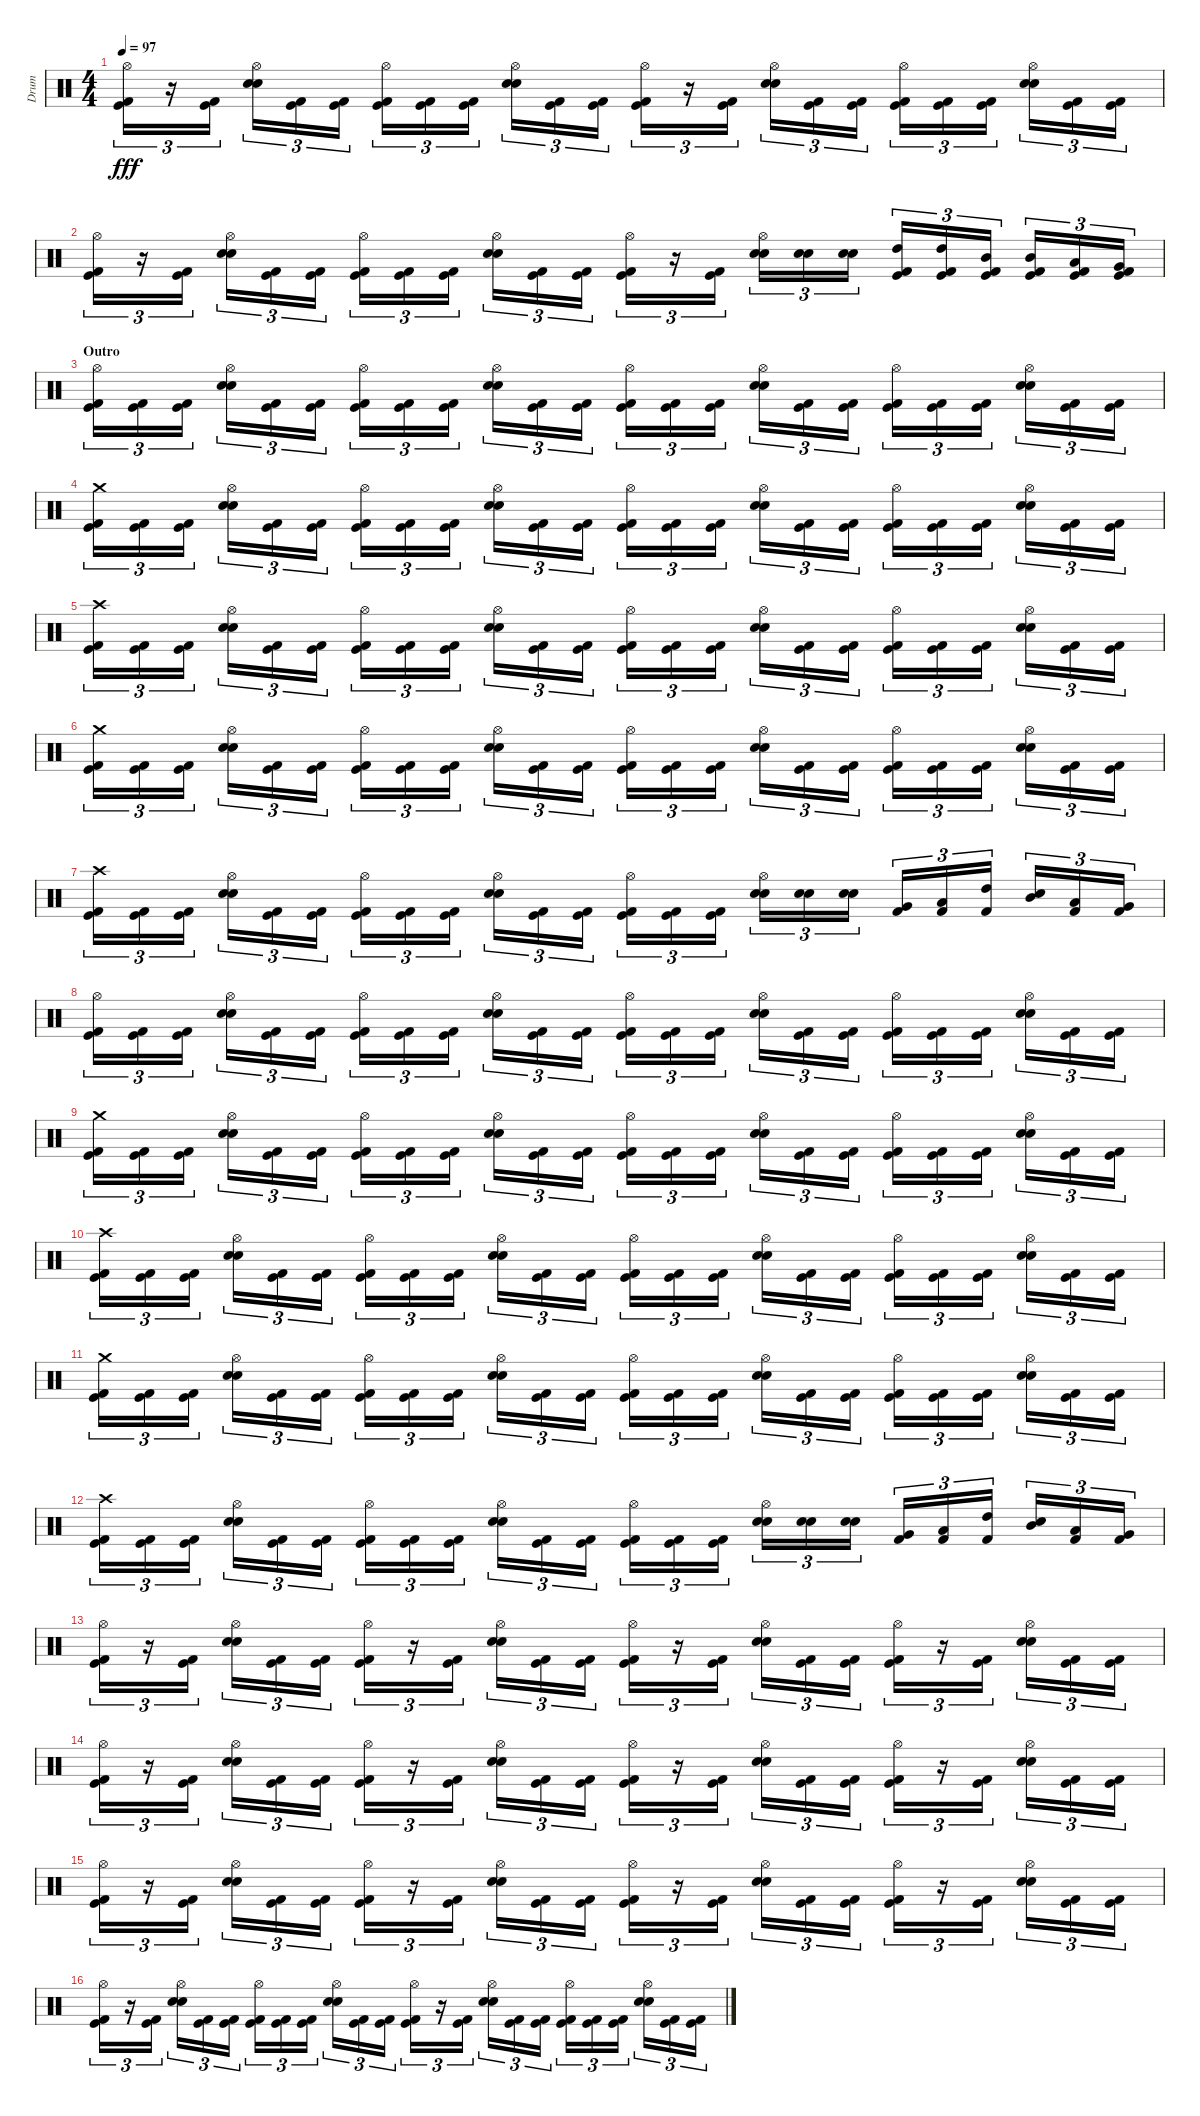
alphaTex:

\track ("Drum" "Drum") {instrument percussion}
\staff {score}
\articulation defaults
\ts (4 4)
\tempo 97
\clef neutral
\ks c
("Hi-Hat (open)" "Kick (hit)" "Kick (hit) 2").16{tu (3 2) dy fff} r.16{tu (3 2)} ("Kick (hit)" "Kick (hit) 2").16{tu (3 2)} ("Hi-Hat (open)" "Electric Snare (hit)" "Snare (hit) 2").16{tu (3 2)} ("Kick (hit)" "Kick (hit) 2").16{tu (3 2)} ("Kick (hit)" "Kick (hit) 2").16{tu (3 2)} ("Hi-Hat (open)" "Kick (hit)" "Kick (hit) 2").16{tu (3 2)} ("Kick (hit)" "Kick (hit) 2").16{tu (3 2)} ("Kick (hit)" "Kick (hit) 2").16{tu (3 2)} ("Hi-Hat (open)" "Electric Snare (hit)" "Snare (hit) 2").16{tu (3 2)} ("Kick (hit)" "Kick (hit) 2").16{tu (3 2)} ("Kick (hit)" "Kick (hit) 2").16{tu (3 2)} ("Hi-Hat (open)" "Kick (hit)" "Kick (hit) 2").16{tu (3 2)} r.16{tu (3 2)} ("Kick (hit)" "Kick (hit) 2").16{tu (3 2)} ("Hi-Hat (open)" "Electric Snare (hit)" "Snare (hit) 2").16{tu (3 2)} ("Kick (hit)" "Kick (hit) 2").16{tu (3 2)} ("Kick (hit)" "Kick (hit) 2").16{tu (3 2)} ("Hi-Hat (open)" "Kick (hit)" "Kick (hit) 2").16{tu (3 2)} ("Kick (hit)" "Kick (hit) 2").16{tu (3 2)} ("Kick (hit)" "Kick (hit) 2").16{tu (3 2)} ("Hi-Hat (open)" "Electric Snare (hit)" "Snare (hit) 2").16{tu (3 2)} ("Kick (hit)" "Kick (hit) 2").16{tu (3 2)} ("Kick (hit)" "Kick (hit) 2").16{tu (3 2)} |
("Hi-Hat (open)" "Kick (hit)" "Kick (hit) 2").16{tu (3 2)} r.16{tu (3 2)} ("Kick (hit)" "Kick (hit) 2").16{tu (3 2)} ("Hi-Hat (open)" "Electric Snare (hit)" "Snare (hit) 2").16{tu (3 2)} ("Kick (hit)" "Kick (hit) 2").16{tu (3 2)} ("Kick (hit)" "Kick (hit) 2").16{tu (3 2)} ("Hi-Hat (open)" "Kick (hit)" "Kick (hit) 2").16{tu (3 2)} ("Kick (hit)" "Kick (hit) 2").16{tu (3 2)} ("Kick (hit)" "Kick (hit) 2").16{tu (3 2)} ("Hi-Hat (open)" "Electric Snare (hit)" "Snare (hit) 2").16{tu (3 2)} ("Kick (hit)" "Kick (hit) 2").16{tu (3 2)} ("Kick (hit)" "Kick (hit) 2").16{tu (3 2)} ("Hi-Hat (open)" "Kick (hit)" "Kick (hit) 2").16{tu (3 2)} r.16{tu (3 2)} ("Kick (hit)" "Kick (hit) 2").16{tu (3 2)} ("Hi-Hat (open)" "Electric Snare (hit)" "Snare (hit) 2").16{tu (3 2)} ("Electric Snare (hit)" "Snare (hit) 2").16{tu (3 2)} ("Electric Snare (hit)" "Snare (hit) 2").16{tu (3 2)} ("High Tom (hit)" "Kick (hit)" "Kick (hit) 2").16{tu (3 2)} ("High Tom (hit)" "Kick (hit)" "Kick (hit) 2").16{tu (3 2)} ("Mid Tom (hit)" "Kick (hit)" "Kick (hit) 2").16{tu (3 2)} ("Mid Tom (hit)" "Kick (hit)" "Kick (hit) 2").16{tu (3 2)} ("Low Tom (hit)" "Kick (hit)" "Kick (hit) 2").16{tu (3 2)} ("Very Low Tom (hit)" "Kick (hit)" "Kick (hit) 2").16{tu (3 2)} |
\section ("" "Outro")
("Hi-Hat (open)" "Kick (hit)" "Kick (hit) 2").16{tu (3 2)} ("Kick (hit)" "Kick (hit) 2").16{tu (3 2)} ("Kick (hit)" "Kick (hit) 2").16{tu (3 2)} ("Hi-Hat (open)" "Electric Snare (hit)" "Snare (hit) 2").16{tu (3 2)} ("Kick (hit)" "Kick (hit) 2").16{tu (3 2)} ("Kick (hit)" "Kick (hit) 2").16{tu (3 2)} ("Hi-Hat (open)" "Kick (hit)" "Kick (hit) 2").16{tu (3 2)} ("Kick (hit)" "Kick (hit) 2").16{tu (3 2)} ("Kick (hit)" "Kick (hit) 2").16{tu (3 2)} ("Hi-Hat (open)" "Electric Snare (hit)" "Snare (hit) 2").16{tu (3 2)} ("Kick (hit)" "Kick (hit) 2").16{tu (3 2)} ("Kick (hit)" "Kick (hit) 2").16{tu (3 2)} ("Hi-Hat (open)" "Kick (hit)" "Kick (hit) 2").16{tu (3 2)} ("Kick (hit)" "Kick (hit) 2").16{tu (3 2)} ("Kick (hit)" "Kick (hit) 2").16{tu (3 2)} ("Hi-Hat (open)" "Electric Snare (hit)" "Snare (hit) 2").16{tu (3 2)} ("Kick (hit)" "Kick (hit) 2").16{tu (3 2)} ("Kick (hit)" "Kick (hit) 2").16{tu (3 2)} ("Hi-Hat (open)" "Kick (hit)" "Kick (hit) 2").16{tu (3 2)} ("Kick (hit)" "Kick (hit) 2").16{tu (3 2)} ("Kick (hit)" "Kick (hit) 2").16{tu (3 2)} ("Hi-Hat (open)" "Electric Snare (hit)" "Snare (hit) 2").16{tu (3 2)} ("Kick (hit)" "Kick (hit) 2").16{tu (3 2)} ("Kick (hit)" "Kick (hit) 2").16{tu (3 2)} |
("Crash medium (hit)" "Kick (hit)" "Kick (hit) 2").16{tu (3 2)} ("Kick (hit)" "Kick (hit) 2").16{tu (3 2)} ("Kick (hit)" "Kick (hit) 2").16{tu (3 2)} ("Hi-Hat (open)" "Electric Snare (hit)" "Snare (hit) 2").16{tu (3 2)} ("Kick (hit)" "Kick (hit) 2").16{tu (3 2)} ("Kick (hit)" "Kick (hit) 2").16{tu (3 2)} ("Hi-Hat (open)" "Kick (hit)" "Kick (hit) 2").16{tu (3 2)} ("Kick (hit)" "Kick (hit) 2").16{tu (3 2)} ("Kick (hit)" "Kick (hit) 2").16{tu (3 2)} ("Hi-Hat (open)" "Electric Snare (hit)" "Snare (hit) 2").16{tu (3 2)} ("Kick (hit)" "Kick (hit) 2").16{tu (3 2)} ("Kick (hit)" "Kick (hit) 2").16{tu (3 2)} ("Hi-Hat (open)" "Kick (hit)" "Kick (hit) 2").16{tu (3 2)} ("Kick (hit)" "Kick (hit) 2").16{tu (3 2)} ("Kick (hit)" "Kick (hit) 2").16{tu (3 2)} ("Hi-Hat (open)" "Electric Snare (hit)" "Snare (hit) 2").16{tu (3 2)} ("Kick (hit)" "Kick (hit) 2").16{tu (3 2)} ("Kick (hit)" "Kick (hit) 2").16{tu (3 2)} ("Hi-Hat (open)" "Kick (hit)" "Kick (hit) 2").16{tu (3 2)} ("Kick (hit)" "Kick (hit) 2").16{tu (3 2)} ("Kick (hit)" "Kick (hit) 2").16{tu (3 2)} ("Hi-Hat (open)" "Electric Snare (hit)" "Snare (hit) 2").16{tu (3 2)} ("Kick (hit)" "Kick (hit) 2").16{tu (3 2)} ("Kick (hit)" "Kick (hit) 2").16{tu (3 2)} |
("Crash high (hit)" "Kick (hit)" "Kick (hit) 2").16{tu (3 2)} ("Kick (hit)" "Kick (hit) 2").16{tu (3 2)} ("Kick (hit)" "Kick (hit) 2").16{tu (3 2)} ("Hi-Hat (open)" "Electric Snare (hit)" "Snare (hit) 2").16{tu (3 2)} ("Kick (hit)" "Kick (hit) 2").16{tu (3 2)} ("Kick (hit)" "Kick (hit) 2").16{tu (3 2)} ("Hi-Hat (open)" "Kick (hit)" "Kick (hit) 2").16{tu (3 2)} ("Kick (hit)" "Kick (hit) 2").16{tu (3 2)} ("Kick (hit)" "Kick (hit) 2").16{tu (3 2)} ("Hi-Hat (open)" "Electric Snare (hit)" "Snare (hit) 2").16{tu (3 2)} ("Kick (hit)" "Kick (hit) 2").16{tu (3 2)} ("Kick (hit)" "Kick (hit) 2").16{tu (3 2)} ("Hi-Hat (open)" "Kick (hit)" "Kick (hit) 2").16{tu (3 2)} ("Kick (hit)" "Kick (hit) 2").16{tu (3 2)} ("Kick (hit)" "Kick (hit) 2").16{tu (3 2)} ("Hi-Hat (open)" "Electric Snare (hit)" "Snare (hit) 2").16{tu (3 2)} ("Kick (hit)" "Kick (hit) 2").16{tu (3 2)} ("Kick (hit)" "Kick (hit) 2").16{tu (3 2)} ("Hi-Hat (open)" "Kick (hit)" "Kick (hit) 2").16{tu (3 2)} ("Kick (hit)" "Kick (hit) 2").16{tu (3 2)} ("Kick (hit)" "Kick (hit) 2").16{tu (3 2)} ("Hi-Hat (open)" "Electric Snare (hit)" "Snare (hit) 2").16{tu (3 2)} ("Kick (hit)" "Kick (hit) 2").16{tu (3 2)} ("Kick (hit)" "Kick (hit) 2").16{tu (3 2)} |
("Crash medium (hit)" "Kick (hit)" "Kick (hit) 2").16{tu (3 2)} ("Kick (hit)" "Kick (hit) 2").16{tu (3 2)} ("Kick (hit)" "Kick (hit) 2").16{tu (3 2)} ("Hi-Hat (open)" "Electric Snare (hit)" "Snare (hit) 2").16{tu (3 2)} ("Kick (hit)" "Kick (hit) 2").16{tu (3 2)} ("Kick (hit)" "Kick (hit) 2").16{tu (3 2)} ("Hi-Hat (open)" "Kick (hit)" "Kick (hit) 2").16{tu (3 2)} ("Kick (hit)" "Kick (hit) 2").16{tu (3 2)} ("Kick (hit)" "Kick (hit) 2").16{tu (3 2)} ("Hi-Hat (open)" "Electric Snare (hit)" "Snare (hit) 2").16{tu (3 2)} ("Kick (hit)" "Kick (hit) 2").16{tu (3 2)} ("Kick (hit)" "Kick (hit) 2").16{tu (3 2)} ("Hi-Hat (open)" "Kick (hit)" "Kick (hit) 2").16{tu (3 2)} ("Kick (hit)" "Kick (hit) 2").16{tu (3 2)} ("Kick (hit)" "Kick (hit) 2").16{tu (3 2)} ("Hi-Hat (open)" "Electric Snare (hit)" "Snare (hit) 2").16{tu (3 2)} ("Kick (hit)" "Kick (hit) 2").16{tu (3 2)} ("Kick (hit)" "Kick (hit) 2").16{tu (3 2)} ("Hi-Hat (open)" "Kick (hit)" "Kick (hit) 2").16{tu (3 2)} ("Kick (hit)" "Kick (hit) 2").16{tu (3 2)} ("Kick (hit)" "Kick (hit) 2").16{tu (3 2)} ("Hi-Hat (open)" "Electric Snare (hit)" "Snare (hit) 2").16{tu (3 2)} ("Kick (hit)" "Kick (hit) 2").16{tu (3 2)} ("Kick (hit)" "Kick (hit) 2").16{tu (3 2)} |
("Crash high (hit)" "Kick (hit)" "Kick (hit) 2").16{tu (3 2)} ("Kick (hit)" "Kick (hit) 2").16{tu (3 2)} ("Kick (hit)" "Kick (hit) 2").16{tu (3 2)} ("Hi-Hat (open)" "Electric Snare (hit)" "Snare (hit) 2").16{tu (3 2)} ("Kick (hit)" "Kick (hit) 2").16{tu (3 2)} ("Kick (hit)" "Kick (hit) 2").16{tu (3 2)} ("Hi-Hat (open)" "Kick (hit)" "Kick (hit) 2").16{tu (3 2)} ("Kick (hit)" "Kick (hit) 2").16{tu (3 2)} ("Kick (hit)" "Kick (hit) 2").16{tu (3 2)} ("Hi-Hat (open)" "Electric Snare (hit)" "Snare (hit) 2").16{tu (3 2)} ("Kick (hit)" "Kick (hit) 2").16{tu (3 2)} ("Kick (hit)" "Kick (hit) 2").16{tu (3 2)} ("Hi-Hat (open)" "Kick (hit)" "Kick (hit) 2").16{tu (3 2)} ("Kick (hit)" "Kick (hit) 2").16{tu (3 2)} ("Kick (hit)" "Kick (hit) 2").16{tu (3 2)} ("Hi-Hat (open)" "Electric Snare (hit)" "Snare (hit) 2").16{tu (3 2)} ("Electric Snare (hit)" "Snare (hit) 2").16{tu (3 2)} ("Electric Snare (hit)" "Snare (hit) 2").16{tu (3 2)} ("Very Low Tom (hit)" "Kick (hit) 2").16{tu (3 2)} ("Low Floor Tom (hit)" "Kick (hit) 2").16{tu (3 2)} ("High Tom (hit)" "Kick (hit) 2").16{tu (3 2)} ("Mid Tom (hit)" "Snare (hit) 2").16{tu (3 2)} ("Low Tom (hit)" "Kick (hit) 2").16{tu (3 2)} ("Very Low Tom (hit)" "Kick (hit) 2").16{tu (3 2)} |
("Hi-Hat (open)" "Kick (hit)" "Kick (hit) 2").16{tu (3 2)} ("Kick (hit)" "Kick (hit) 2").16{tu (3 2)} ("Kick (hit)" "Kick (hit) 2").16{tu (3 2)} ("Hi-Hat (open)" "Electric Snare (hit)" "Snare (hit) 2").16{tu (3 2)} ("Kick (hit)" "Kick (hit) 2").16{tu (3 2)} ("Kick (hit)" "Kick (hit) 2").16{tu (3 2)} ("Hi-Hat (open)" "Kick (hit)" "Kick (hit) 2").16{tu (3 2)} ("Kick (hit)" "Kick (hit) 2").16{tu (3 2)} ("Kick (hit)" "Kick (hit) 2").16{tu (3 2)} ("Hi-Hat (open)" "Electric Snare (hit)" "Snare (hit) 2").16{tu (3 2)} ("Kick (hit)" "Kick (hit) 2").16{tu (3 2)} ("Kick (hit)" "Kick (hit) 2").16{tu (3 2)} ("Hi-Hat (open)" "Kick (hit)" "Kick (hit) 2").16{tu (3 2)} ("Kick (hit)" "Kick (hit) 2").16{tu (3 2)} ("Kick (hit)" "Kick (hit) 2").16{tu (3 2)} ("Hi-Hat (open)" "Electric Snare (hit)" "Snare (hit) 2").16{tu (3 2)} ("Kick (hit)" "Kick (hit) 2").16{tu (3 2)} ("Kick (hit)" "Kick (hit) 2").16{tu (3 2)} ("Hi-Hat (open)" "Kick (hit)" "Kick (hit) 2").16{tu (3 2)} ("Kick (hit)" "Kick (hit) 2").16{tu (3 2)} ("Kick (hit)" "Kick (hit) 2").16{tu (3 2)} ("Hi-Hat (open)" "Electric Snare (hit)" "Snare (hit) 2").16{tu (3 2)} ("Kick (hit)" "Kick (hit) 2").16{tu (3 2)} ("Kick (hit)" "Kick (hit) 2").16{tu (3 2)} |
("Crash medium (hit)" "Kick (hit)" "Kick (hit) 2").16{tu (3 2)} ("Kick (hit)" "Kick (hit) 2").16{tu (3 2)} ("Kick (hit)" "Kick (hit) 2").16{tu (3 2)} ("Hi-Hat (open)" "Electric Snare (hit)" "Snare (hit) 2").16{tu (3 2)} ("Kick (hit)" "Kick (hit) 2").16{tu (3 2)} ("Kick (hit)" "Kick (hit) 2").16{tu (3 2)} ("Hi-Hat (open)" "Kick (hit)" "Kick (hit) 2").16{tu (3 2)} ("Kick (hit)" "Kick (hit) 2").16{tu (3 2)} ("Kick (hit)" "Kick (hit) 2").16{tu (3 2)} ("Hi-Hat (open)" "Electric Snare (hit)" "Snare (hit) 2").16{tu (3 2)} ("Kick (hit)" "Kick (hit) 2").16{tu (3 2)} ("Kick (hit)" "Kick (hit) 2").16{tu (3 2)} ("Hi-Hat (open)" "Kick (hit)" "Kick (hit) 2").16{tu (3 2)} ("Kick (hit)" "Kick (hit) 2").16{tu (3 2)} ("Kick (hit)" "Kick (hit) 2").16{tu (3 2)} ("Hi-Hat (open)" "Electric Snare (hit)" "Snare (hit) 2").16{tu (3 2)} ("Kick (hit)" "Kick (hit) 2").16{tu (3 2)} ("Kick (hit)" "Kick (hit) 2").16{tu (3 2)} ("Hi-Hat (open)" "Kick (hit)" "Kick (hit) 2").16{tu (3 2)} ("Kick (hit)" "Kick (hit) 2").16{tu (3 2)} ("Kick (hit)" "Kick (hit) 2").16{tu (3 2)} ("Hi-Hat (open)" "Electric Snare (hit)" "Snare (hit) 2").16{tu (3 2)} ("Kick (hit)" "Kick (hit) 2").16{tu (3 2)} ("Kick (hit)" "Kick (hit) 2").16{tu (3 2)} |
("Crash high (hit)" "Kick (hit)" "Kick (hit) 2").16{tu (3 2)} ("Kick (hit)" "Kick (hit) 2").16{tu (3 2)} ("Kick (hit)" "Kick (hit) 2").16{tu (3 2)} ("Hi-Hat (open)" "Electric Snare (hit)" "Snare (hit) 2").16{tu (3 2)} ("Kick (hit)" "Kick (hit) 2").16{tu (3 2)} ("Kick (hit)" "Kick (hit) 2").16{tu (3 2)} ("Hi-Hat (open)" "Kick (hit)" "Kick (hit) 2").16{tu (3 2)} ("Kick (hit)" "Kick (hit) 2").16{tu (3 2)} ("Kick (hit)" "Kick (hit) 2").16{tu (3 2)} ("Hi-Hat (open)" "Electric Snare (hit)" "Snare (hit) 2").16{tu (3 2)} ("Kick (hit)" "Kick (hit) 2").16{tu (3 2)} ("Kick (hit)" "Kick (hit) 2").16{tu (3 2)} ("Hi-Hat (open)" "Kick (hit)" "Kick (hit) 2").16{tu (3 2)} ("Kick (hit)" "Kick (hit) 2").16{tu (3 2)} ("Kick (hit)" "Kick (hit) 2").16{tu (3 2)} ("Hi-Hat (open)" "Electric Snare (hit)" "Snare (hit) 2").16{tu (3 2)} ("Kick (hit)" "Kick (hit) 2").16{tu (3 2)} ("Kick (hit)" "Kick (hit) 2").16{tu (3 2)} ("Hi-Hat (open)" "Kick (hit)" "Kick (hit) 2").16{tu (3 2)} ("Kick (hit)" "Kick (hit) 2").16{tu (3 2)} ("Kick (hit)" "Kick (hit) 2").16{tu (3 2)} ("Hi-Hat (open)" "Electric Snare (hit)" "Snare (hit) 2").16{tu (3 2)} ("Kick (hit)" "Kick (hit) 2").16{tu (3 2)} ("Kick (hit)" "Kick (hit) 2").16{tu (3 2)} |
("Crash medium (hit)" "Kick (hit)" "Kick (hit) 2").16{tu (3 2)} ("Kick (hit)" "Kick (hit) 2").16{tu (3 2)} ("Kick (hit)" "Kick (hit) 2").16{tu (3 2)} ("Hi-Hat (open)" "Electric Snare (hit)" "Snare (hit) 2").16{tu (3 2)} ("Kick (hit)" "Kick (hit) 2").16{tu (3 2)} ("Kick (hit)" "Kick (hit) 2").16{tu (3 2)} ("Hi-Hat (open)" "Kick (hit)" "Kick (hit) 2").16{tu (3 2)} ("Kick (hit)" "Kick (hit) 2").16{tu (3 2)} ("Kick (hit)" "Kick (hit) 2").16{tu (3 2)} ("Hi-Hat (open)" "Electric Snare (hit)" "Snare (hit) 2").16{tu (3 2)} ("Kick (hit)" "Kick (hit) 2").16{tu (3 2)} ("Kick (hit)" "Kick (hit) 2").16{tu (3 2)} ("Hi-Hat (open)" "Kick (hit)" "Kick (hit) 2").16{tu (3 2)} ("Kick (hit)" "Kick (hit) 2").16{tu (3 2)} ("Kick (hit)" "Kick (hit) 2").16{tu (3 2)} ("Hi-Hat (open)" "Electric Snare (hit)" "Snare (hit) 2").16{tu (3 2)} ("Kick (hit)" "Kick (hit) 2").16{tu (3 2)} ("Kick (hit)" "Kick (hit) 2").16{tu (3 2)} ("Hi-Hat (open)" "Kick (hit)" "Kick (hit) 2").16{tu (3 2)} ("Kick (hit)" "Kick (hit) 2").16{tu (3 2)} ("Kick (hit)" "Kick (hit) 2").16{tu (3 2)} ("Hi-Hat (open)" "Electric Snare (hit)" "Snare (hit) 2").16{tu (3 2)} ("Kick (hit)" "Kick (hit) 2").16{tu (3 2)} ("Kick (hit)" "Kick (hit) 2").16{tu (3 2)} |
("Crash high (hit)" "Kick (hit)" "Kick (hit) 2").16{tu (3 2)} ("Kick (hit)" "Kick (hit) 2").16{tu (3 2)} ("Kick (hit)" "Kick (hit) 2").16{tu (3 2)} ("Hi-Hat (open)" "Electric Snare (hit)" "Snare (hit) 2").16{tu (3 2)} ("Kick (hit)" "Kick (hit) 2").16{tu (3 2)} ("Kick (hit)" "Kick (hit) 2").16{tu (3 2)} ("Hi-Hat (open)" "Kick (hit)" "Kick (hit) 2").16{tu (3 2)} ("Kick (hit)" "Kick (hit) 2").16{tu (3 2)} ("Kick (hit)" "Kick (hit) 2").16{tu (3 2)} ("Hi-Hat (open)" "Electric Snare (hit)" "Snare (hit) 2").16{tu (3 2)} ("Kick (hit)" "Kick (hit) 2").16{tu (3 2)} ("Kick (hit)" "Kick (hit) 2").16{tu (3 2)} ("Hi-Hat (open)" "Kick (hit)" "Kick (hit) 2").16{tu (3 2)} ("Kick (hit)" "Kick (hit) 2").16{tu (3 2)} ("Kick (hit)" "Kick (hit) 2").16{tu (3 2)} ("Hi-Hat (open)" "Electric Snare (hit)" "Snare (hit) 2").16{tu (3 2)} ("Electric Snare (hit)" "Snare (hit) 2").16{tu (3 2)} ("Electric Snare (hit)" "Snare (hit) 2").16{tu (3 2)} ("Very Low Tom (hit)" "Kick (hit) 2").16{tu (3 2)} ("Low Floor Tom (hit)" "Kick (hit) 2").16{tu (3 2)} ("High Tom (hit)" "Kick (hit) 2").16{tu (3 2)} ("Mid Tom (hit)" "Snare (hit) 2").16{tu (3 2)} ("Low Tom (hit)" "Kick (hit) 2").16{tu (3 2)} ("Very Low Tom (hit)" "Kick (hit) 2").16{tu (3 2)} |
("Hi-Hat (open)" "Kick (hit)" "Kick (hit) 2").16{tu (3 2)} r.16{tu (3 2)} ("Kick (hit)" "Kick (hit) 2").16{tu (3 2)} ("Hi-Hat (open)" "Electric Snare (hit)" "Snare (hit) 2").16{tu (3 2)} ("Kick (hit)" "Kick (hit) 2").16{tu (3 2)} ("Kick (hit)" "Kick (hit) 2").16{tu (3 2)} ("Hi-Hat (open)" "Kick (hit)" "Kick (hit) 2").16{tu (3 2)} r.16{tu (3 2)} ("Kick (hit)" "Kick (hit) 2").16{tu (3 2)} ("Hi-Hat (open)" "Electric Snare (hit)" "Snare (hit) 2").16{tu (3 2)} ("Kick (hit)" "Kick (hit) 2").16{tu (3 2)} ("Kick (hit)" "Kick (hit) 2").16{tu (3 2)} ("Hi-Hat (open)" "Kick (hit)" "Kick (hit) 2").16{tu (3 2)} r.16{tu (3 2)} ("Kick (hit)" "Kick (hit) 2").16{tu (3 2)} ("Hi-Hat (open)" "Electric Snare (hit)" "Snare (hit) 2").16{tu (3 2)} ("Kick (hit)" "Kick (hit) 2").16{tu (3 2)} ("Kick (hit)" "Kick (hit) 2").16{tu (3 2)} ("Hi-Hat (open)" "Kick (hit)" "Kick (hit) 2").16{tu (3 2)} r.16{tu (3 2)} ("Kick (hit)" "Kick (hit) 2").16{tu (3 2)} ("Hi-Hat (open)" "Electric Snare (hit)" "Snare (hit) 2").16{tu (3 2)} ("Kick (hit)" "Kick (hit) 2").16{tu (3 2)} ("Kick (hit)" "Kick (hit) 2").16{tu (3 2)} |
("Hi-Hat (open)" "Kick (hit)" "Kick (hit) 2").16{tu (3 2)} r.16{tu (3 2)} ("Kick (hit)" "Kick (hit) 2").16{tu (3 2)} ("Hi-Hat (open)" "Electric Snare (hit)" "Snare (hit) 2").16{tu (3 2)} ("Kick (hit)" "Kick (hit) 2").16{tu (3 2)} ("Kick (hit)" "Kick (hit) 2").16{tu (3 2)} ("Hi-Hat (open)" "Kick (hit)" "Kick (hit) 2").16{tu (3 2)} r.16{tu (3 2)} ("Kick (hit)" "Kick (hit) 2").16{tu (3 2)} ("Hi-Hat (open)" "Electric Snare (hit)" "Snare (hit) 2").16{tu (3 2)} ("Kick (hit)" "Kick (hit) 2").16{tu (3 2)} ("Kick (hit)" "Kick (hit) 2").16{tu (3 2)} ("Hi-Hat (open)" "Kick (hit)" "Kick (hit) 2").16{tu (3 2)} r.16{tu (3 2)} ("Kick (hit)" "Kick (hit) 2").16{tu (3 2)} ("Hi-Hat (open)" "Electric Snare (hit)" "Snare (hit) 2").16{tu (3 2)} ("Kick (hit)" "Kick (hit) 2").16{tu (3 2)} ("Kick (hit)" "Kick (hit) 2").16{tu (3 2)} ("Hi-Hat (open)" "Kick (hit)" "Kick (hit) 2").16{tu (3 2)} r.16{tu (3 2)} ("Kick (hit)" "Kick (hit) 2").16{tu (3 2)} ("Hi-Hat (open)" "Electric Snare (hit)" "Snare (hit) 2").16{tu (3 2)} ("Kick (hit)" "Kick (hit) 2").16{tu (3 2)} ("Kick (hit)" "Kick (hit) 2").16{tu (3 2)} |
("Hi-Hat (open)" "Kick (hit)" "Kick (hit) 2").16{tu (3 2)} r.16{tu (3 2)} ("Kick (hit)" "Kick (hit) 2").16{tu (3 2)} ("Hi-Hat (open)" "Electric Snare (hit)" "Snare (hit) 2").16{tu (3 2)} ("Kick (hit)" "Kick (hit) 2").16{tu (3 2)} ("Kick (hit)" "Kick (hit) 2").16{tu (3 2)} ("Hi-Hat (open)" "Kick (hit)" "Kick (hit) 2").16{tu (3 2)} r.16{tu (3 2)} ("Kick (hit)" "Kick (hit) 2").16{tu (3 2)} ("Hi-Hat (open)" "Electric Snare (hit)" "Snare (hit) 2").16{tu (3 2)} ("Kick (hit)" "Kick (hit) 2").16{tu (3 2)} ("Kick (hit)" "Kick (hit) 2").16{tu (3 2)} ("Hi-Hat (open)" "Kick (hit)" "Kick (hit) 2").16{tu (3 2)} r.16{tu (3 2)} ("Kick (hit)" "Kick (hit) 2").16{tu (3 2)} ("Hi-Hat (open)" "Electric Snare (hit)" "Snare (hit) 2").16{tu (3 2)} ("Kick (hit)" "Kick (hit) 2").16{tu (3 2)} ("Kick (hit)" "Kick (hit) 2").16{tu (3 2)} ("Hi-Hat (open)" "Kick (hit)" "Kick (hit) 2").16{tu (3 2)} r.16{tu (3 2)} ("Kick (hit)" "Kick (hit) 2").16{tu (3 2)} ("Hi-Hat (open)" "Electric Snare (hit)" "Snare (hit) 2").16{tu (3 2)} ("Kick (hit)" "Kick (hit) 2").16{tu (3 2)} ("Kick (hit)" "Kick (hit) 2").16{tu (3 2)} |
("Hi-Hat (open)" "Kick (hit)" "Kick (hit) 2").16{tu (3 2)} r.16{tu (3 2)} ("Kick (hit)" "Kick (hit) 2").16{tu (3 2)} ("Hi-Hat (open)" "Electric Snare (hit)" "Snare (hit) 2").16{tu (3 2)} ("Kick (hit)" "Kick (hit) 2").16{tu (3 2)} ("Kick (hit)" "Kick (hit) 2").16{tu (3 2)} ("Hi-Hat (open)" "Kick (hit)" "Kick (hit) 2").16{tu (3 2)} ("Kick (hit)" "Kick (hit) 2").16{tu (3 2)} ("Kick (hit)" "Kick (hit) 2").16{tu (3 2)} ("Hi-Hat (open)" "Electric Snare (hit)" "Snare (hit) 2").16{tu (3 2)} ("Kick (hit)" "Kick (hit) 2").16{tu (3 2)} ("Kick (hit)" "Kick (hit) 2").16{tu (3 2)} ("Hi-Hat (open)" "Kick (hit)" "Kick (hit) 2").16{tu (3 2)} r.16{tu (3 2)} ("Kick (hit)" "Kick (hit) 2").16{tu (3 2)} ("Hi-Hat (open)" "Electric Snare (hit)" "Snare (hit) 2").16{tu (3 2)} ("Kick (hit)" "Kick (hit) 2").16{tu (3 2)} ("Kick (hit)" "Kick (hit) 2").16{tu (3 2)} ("Hi-Hat (open)" "Kick (hit)" "Kick (hit) 2").16{tu (3 2)} ("Kick (hit)" "Kick (hit) 2").16{tu (3 2)} ("Kick (hit)" "Kick (hit) 2").16{tu (3 2)} ("Hi-Hat (open)" "Electric Snare (hit)" "Snare (hit) 2").16{tu (3 2)} ("Kick (hit)" "Kick (hit) 2").16{tu (3 2)} ("Kick (hit)" "Kick (hit) 2").16{tu (3 2)}
